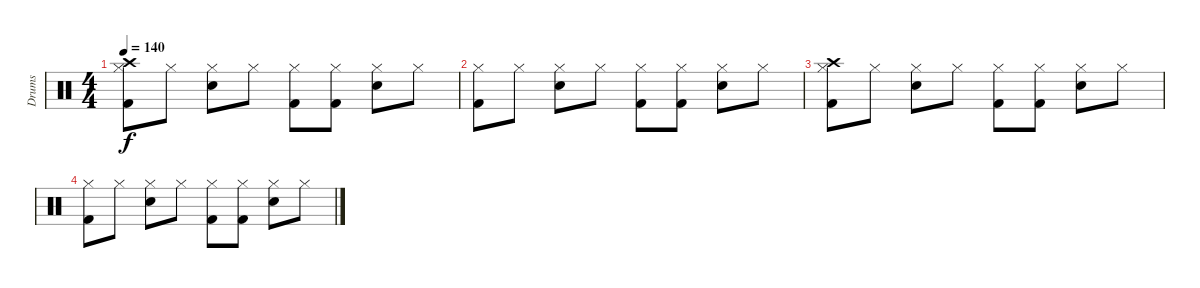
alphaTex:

\track ("Drums" "Drums") {instrument percussion}
\staff {score}
\articulation defaults
\ts (4 4)
\tempo 140
\clef neutral
\ks c
("Hi-Hat (closed)" "Kick (hit) 2" "Crash high (hit)").8{dy f} "Hi-Hat (closed)".8 ("Hi-Hat (closed)" "Snare (hit) 2").8 "Hi-Hat (closed)".8 ("Hi-Hat (closed)" "Kick (hit) 2").8 ("Hi-Hat (closed)" "Kick (hit) 2").8 ("Hi-Hat (closed)" "Snare (hit) 2").8 "Hi-Hat (closed)".8 |
("Hi-Hat (closed)" "Kick (hit) 2").8 "Hi-Hat (closed)".8 ("Hi-Hat (closed)" "Snare (hit) 2").8 "Hi-Hat (closed)".8 ("Hi-Hat (closed)" "Kick (hit) 2").8 ("Hi-Hat (closed)" "Kick (hit) 2").8 ("Hi-Hat (closed)" "Snare (hit) 2").8 "Hi-Hat (closed)".8 |
("Hi-Hat (closed)" "Kick (hit) 2" "Crash high (hit)").8 "Hi-Hat (closed)".8 ("Hi-Hat (closed)" "Snare (hit) 2").8 "Hi-Hat (closed)".8 ("Hi-Hat (closed)" "Kick (hit) 2").8 ("Hi-Hat (closed)" "Kick (hit) 2").8 ("Hi-Hat (closed)" "Snare (hit) 2").8 "Hi-Hat (closed)".8 |
("Hi-Hat (closed)" "Kick (hit) 2").8 "Hi-Hat (closed)".8 ("Hi-Hat (closed)" "Snare (hit) 2").8 "Hi-Hat (closed)".8 ("Hi-Hat (closed)" "Kick (hit) 2").8 ("Hi-Hat (closed)" "Kick (hit) 2").8 ("Hi-Hat (closed)" "Snare (hit) 2").8 "Hi-Hat (closed)".8
